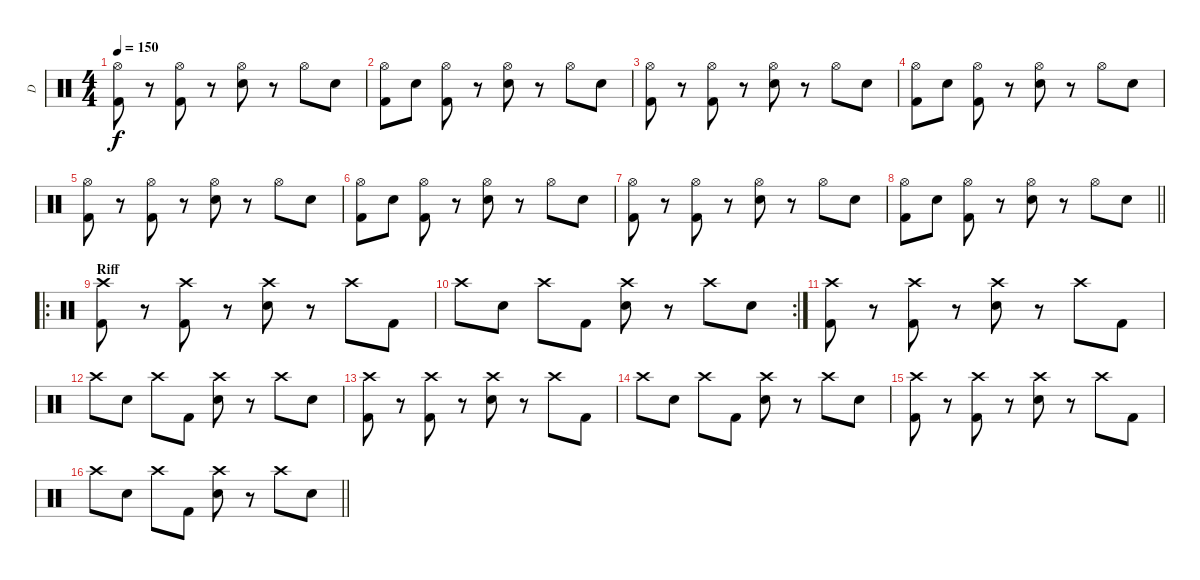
\track ("D" "D") {instrument percussion}
\staff {score}
\articulation defaults
\ts (4 4)
\tempo 150
\clef neutral
\ks c
("Hi-Hat (open)" "Kick (hit) 2").8{dy f} r.8 ("Hi-Hat (open)" "Kick (hit) 2").8 r.8 ("Hi-Hat (open)" "Snare (hit) 2").8 r.8 "Hi-Hat (open)".8 "Snare (hit) 2".8 |
("Hi-Hat (open)" "Kick (hit) 2").8 "Snare (hit) 2".8 ("Hi-Hat (open)" "Kick (hit) 2").8 r.8 ("Hi-Hat (open)" "Snare (hit) 2").8 r.8 "Hi-Hat (open)".8 "Snare (hit) 2".8 |
("Hi-Hat (open)" "Kick (hit) 2").8 r.8 ("Hi-Hat (open)" "Kick (hit) 2").8 r.8 ("Hi-Hat (open)" "Snare (hit) 2").8 r.8 "Hi-Hat (open)".8 "Snare (hit) 2".8 |
("Hi-Hat (open)" "Kick (hit) 2").8 "Snare (hit) 2".8 ("Hi-Hat (open)" "Kick (hit) 2").8 r.8 ("Hi-Hat (open)" "Snare (hit) 2").8 r.8 "Hi-Hat (open)".8 "Snare (hit) 2".8 |
("Hi-Hat (open)" "Kick (hit) 2").8 r.8 ("Hi-Hat (open)" "Kick (hit) 2").8 r.8 ("Hi-Hat (open)" "Snare (hit) 2").8 r.8 "Hi-Hat (open)".8 "Snare (hit) 2".8 |
("Hi-Hat (open)" "Kick (hit) 2").8 "Snare (hit) 2".8 ("Hi-Hat (open)" "Kick (hit) 2").8 r.8 ("Hi-Hat (open)" "Snare (hit) 2").8 r.8 "Hi-Hat (open)".8 "Snare (hit) 2".8 |
("Hi-Hat (open)" "Kick (hit) 2").8 r.8 ("Hi-Hat (open)" "Kick (hit) 2").8 r.8 ("Hi-Hat (open)" "Snare (hit) 2").8 r.8 "Hi-Hat (open)".8 "Snare (hit) 2".8 |
\barLineRight lightlight
("Hi-Hat (open)" "Kick (hit) 2").8 "Snare (hit) 2".8 ("Hi-Hat (open)" "Kick (hit) 2").8 r.8 ("Hi-Hat (open)" "Snare (hit) 2").8 r.8 "Hi-Hat (open)".8 "Snare (hit) 2".8 |
\ro
\section ("" "Riff")
("Crash high (hit)" "Kick (hit) 2").8 r.8 ("Crash high (hit)" "Kick (hit) 2").8 r.8 ("Crash high (hit)" "Snare (hit) 2").8 r.8 "Crash high (hit)".8 "Kick (hit) 2".8 |
\rc 2 "Crash high (hit)".8 "Snare (hit) 2".8 "Crash high (hit)".8 "Kick (hit) 2".8
("Crash high (hit)" "Snare (hit) 2").8 r.8 "Crash high (hit)".8 "Snare (hit) 2".8 |
("Crash high (hit)" "Kick (hit) 2").8 r.8 ("Crash high (hit)" "Kick (hit) 2").8 r.8 ("Crash high (hit)" "Snare (hit) 2").8 r.8 "Crash high (hit)".8 "Kick (hit) 2".8 |
"Crash high (hit)".8 "Snare (hit) 2".8 "Crash high (hit)".8 "Kick (hit) 2".8 ("Crash high (hit)" "Snare (hit) 2").8 r.8 "Crash high (hit)".8 "Snare (hit) 2".8 |
("Crash high (hit)" "Kick (hit) 2").8 r.8 ("Crash high (hit)" "Kick (hit) 2").8 r.8 ("Crash high (hit)" "Snare (hit) 2").8 r.8 "Crash high (hit)".8 "Kick (hit) 2".8 |
"Crash high (hit)".8 "Snare (hit) 2".8 "Crash high (hit)".8 "Kick (hit) 2".8 ("Crash high (hit)" "Snare (hit) 2").8 r.8 "Crash high (hit)".8 "Snare (hit) 2".8 |
("Crash high (hit)" "Kick (hit) 2").8 r.8 ("Crash high (hit)" "Kick (hit) 2").8 r.8 ("Crash high (hit)" "Snare (hit) 2").8 r.8 "Crash high (hit)".8 "Kick (hit) 2".8 |
\barLineRight lightlight "Crash high (hit)".8 "Snare (hit) 2".8 "Crash high (hit)".8 "Kick (hit) 2".8
("Crash high (hit)" "Snare (hit) 2").8 r.8 "Crash high (hit)".8 "Snare (hit) 2".8
